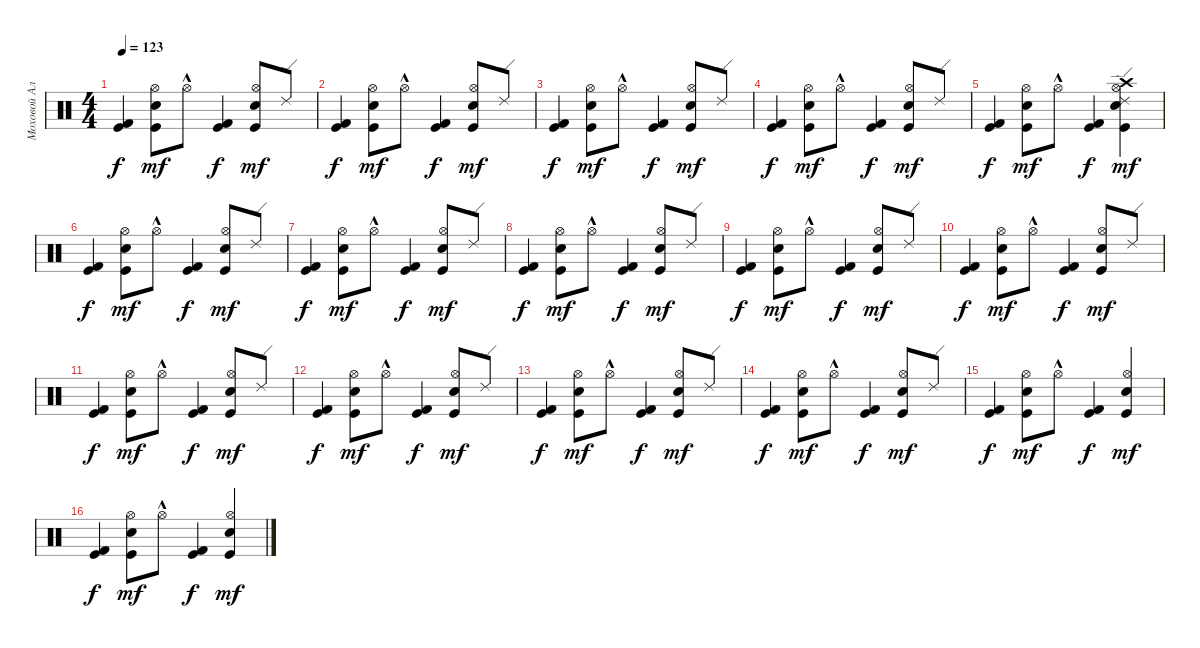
\track ("Moxoвой Алексей" "Moxoвой Ал") {instrument percussion}
\staff {score}
\articulation defaults
\ts (4 4)
\tempo 123
\clef neutral
\ks c
("Kick (hit)" "Kick (hit) 2").4{dy f} ("Hi-Hat (open)" "Kick (hit)" "Hand Clap (hit)").8{dy mf} "Hi-Hat (open)"{hac}.8 ("Kick (hit) 2" "Kick (hit)").4{dy f} ("Kick (hit)" "Hand Clap (hit)" "Hi-Hat (open)").8{dy mf} "Ride (edge) 2".8 |
("Kick (hit) 2" "Kick (hit)").4{dy f} ("Hand Clap (hit)" "Kick (hit)" "Hi-Hat (open)").8{dy mf} "Hi-Hat (open)"{hac}.8 ("Kick (hit)" "Kick (hit) 2").4{dy f} ("Hand Clap (hit)" "Hi-Hat (open)" "Kick (hit)").8{dy mf} "Ride (edge) 2".8 |
("Kick (hit)" "Kick (hit) 2").4{dy f} ("Kick (hit)" "Hi-Hat (open)" "Hand Clap (hit)").8{dy mf} "Hi-Hat (open)"{hac}.8 ("Kick (hit)" "Kick (hit) 2").4{dy f} ("Hi-Hat (open)" "Hand Clap (hit)" "Kick (hit)").8{dy mf} "Ride (edge) 2".8 |
("Kick (hit)" "Kick (hit) 2").4{dy f} ("Hi-Hat (open)" "Kick (hit)" "Hand Clap (hit)").8{dy mf} "Hi-Hat (open)"{hac}.8 ("Kick (hit) 2" "Kick (hit)").4{dy f} ("Hand Clap (hit)" "Hi-Hat (open)" "Kick (hit)").8{dy mf} "Ride (edge) 2".8 |
("Kick (hit) 2" "Kick (hit)").4{dy f} ("Kick (hit)" "Hand Clap (hit)" "Hi-Hat (open)").8{dy mf} "Hi-Hat (open)"{hac}.8 ("Kick (hit) 2" "Kick (hit)").4{dy f} ("Hand Clap (hit)" "Kick (hit)" "Crash high (hit)" "Hi-Hat (open)" "Ride (edge) 2").4{dy mf} |
("Kick (hit)" "Kick (hit) 2").4{dy f} ("Kick (hit)" "Hand Clap (hit)" "Hi-Hat (open)").8{dy mf} "Hi-Hat (open)"{hac}.8 ("Kick (hit) 2" "Kick (hit)").4{dy f} ("Kick (hit)" "Hand Clap (hit)" "Hi-Hat (open)").8{dy mf} "Ride (edge) 2".8 |
("Kick (hit) 2" "Kick (hit)").4{dy f} ("Hi-Hat (open)" "Kick (hit)" "Hand Clap (hit)").8{dy mf} "Hi-Hat (open)"{hac}.8 ("Kick (hit)" "Kick (hit) 2").4{dy f} ("Hand Clap (hit)" "Kick (hit)" "Hi-Hat (open)").8{dy mf} "Ride (edge) 2".8 |
("Kick (hit)" "Kick (hit) 2").4{dy f} ("Hi-Hat (open)" "Hand Clap (hit)" "Kick (hit)").8{dy mf} "Hi-Hat (open)"{hac}.8 ("Kick (hit)" "Kick (hit) 2").4{dy f} ("Hi-Hat (open)" "Hand Clap (hit)" "Kick (hit)").8{dy mf} "Ride (edge) 2".8 |
("Kick (hit)" "Kick (hit) 2").4{dy f} ("Hand Clap (hit)" "Hi-Hat (open)" "Kick (hit)").8{dy mf} "Hi-Hat (open)"{hac}.8 ("Kick (hit) 2" "Kick (hit)").4{dy f} ("Hand Clap (hit)" "Hi-Hat (open)" "Kick (hit)").8{dy mf} "Ride (edge) 2".8 |
("Kick (hit) 2" "Kick (hit)").4{dy f} ("Hi-Hat (open)" "Hand Clap (hit)" "Kick (hit)").8{dy mf} "Hi-Hat (open)"{hac}.8 ("Kick (hit) 2" "Kick (hit)").4{dy f} ("Kick (hit)" "Hi-Hat (open)" "Hand Clap (hit)").8{dy mf} "Ride (edge) 2".8 |
("Kick (hit)" "Kick (hit) 2").4{dy f} ("Kick (hit)" "Hi-Hat (open)" "Hand Clap (hit)").8{dy mf} "Hi-Hat (open)"{hac}.8 ("Kick (hit)" "Kick (hit) 2").4{dy f} ("Hi-Hat (open)" "Kick (hit)" "Hand Clap (hit)").8{dy mf} "Ride (edge) 2".8 |
("Kick (hit) 2" "Kick (hit)").4{dy f} ("Hi-Hat (open)" "Kick (hit)" "Hand Clap (hit)").8{dy mf} "Hi-Hat (open)"{hac}.8 ("Kick (hit)" "Kick (hit) 2").4{dy f} ("Kick (hit)" "Hand Clap (hit)" "Hi-Hat (open)").8{dy mf} "Ride (edge) 2".8 |
("Kick (hit) 2" "Kick (hit)").4{dy f} ("Hi-Hat (open)" "Kick (hit)" "Hand Clap (hit)").8{dy mf} "Hi-Hat (open)"{hac}.8 ("Kick (hit)" "Kick (hit) 2").4{dy f} ("Kick (hit)" "Hand Clap (hit)" "Hi-Hat (open)").8{dy mf} "Ride (edge) 2".8 |
("Kick (hit) 2" "Kick (hit)").4{dy f} ("Kick (hit)" "Hand Clap (hit)" "Hi-Hat (open)").8{dy mf} "Hi-Hat (open)"{hac}.8 ("Kick (hit) 2" "Kick (hit)").4{dy f} ("Kick (hit)" "Hand Clap (hit)" "Hi-Hat (open)").8{dy mf} "Ride (edge) 2".8 |
("Kick (hit) 2" "Kick (hit)").4{dy f} ("Kick (hit)" "Hand Clap (hit)" "Hi-Hat (open)").8{dy mf} "Hi-Hat (open)"{hac}.8 ("Kick (hit) 2" "Kick (hit)").4{dy f} ("Kick (hit)" "Hand Clap (hit)" "Hi-Hat (open)").4{dy mf} |
("Kick (hit) 2" "Kick (hit)").4{dy f} ("Kick (hit)" "Hand Clap (hit)" "Hi-Hat (open)").8{dy mf} "Hi-Hat (open)"{hac}.8 ("Kick (hit) 2" "Kick (hit)").4{dy f} ("Hand Clap (hit)" "Kick (hit)" "Hi-Hat (open)").4{dy mf}
